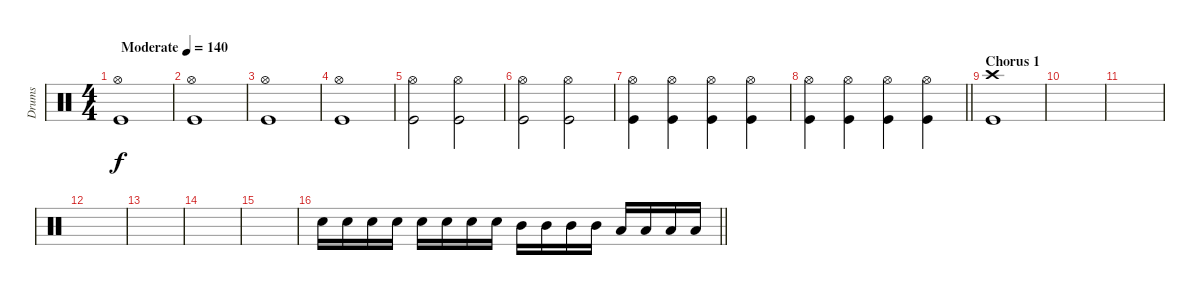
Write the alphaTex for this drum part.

\track ("Drums" "Drums") {instrument percussion}
\staff {score}
\articulation defaults
\ts (4 4)
\tempo (140 "Moderate")
\clef neutral
\ks c
("Hi-Hat (open)" "Kick (hit)").1{dy f} |
("Hi-Hat (open)" "Kick (hit)").1 |
("Hi-Hat (open)" "Kick (hit)").1 |
("Hi-Hat (open)" "Kick (hit)").1 |
("Hi-Hat (open)" "Kick (hit)").2 ("Hi-Hat (open)" "Kick (hit)").2 |
("Hi-Hat (open)" "Kick (hit)").2 ("Hi-Hat (open)" "Kick (hit)").2 |
("Hi-Hat (open)" "Kick (hit)").4 ("Hi-Hat (open)" "Kick (hit)").4 ("Hi-Hat (open)" "Kick (hit)").4 ("Hi-Hat (open)" "Kick (hit)").4 |
\barLineRight lightlight
("Hi-Hat (open)" "Kick (hit)").4 ("Hi-Hat (open)" "Kick (hit)").4 ("Hi-Hat (open)" "Kick (hit)").4 ("Hi-Hat (open)" "Kick (hit)").4 |
\section ("" "Chorus 1")
("Crash high (hit)" "Kick (hit)").1 |
|
|
|
|
|
|
\barLineRight lightlight "Snare (hit) 2".16 "Snare (hit) 2".16 "Snare (hit) 2".16 "Snare (hit) 2".16 "Snare (hit) 2".16 "Snare (hit) 2".16 "Snare (hit) 2".16 "Snare (hit) 2".16 "Mid Tom (hit)".16 "Mid Tom (hit)".16 "Mid Tom (hit)".16 "Mid Tom (hit)".16 "Low Tom (hit)".16 "Low Tom (hit)".16 "Low Tom (hit)".16 "Low Tom (hit)".16
